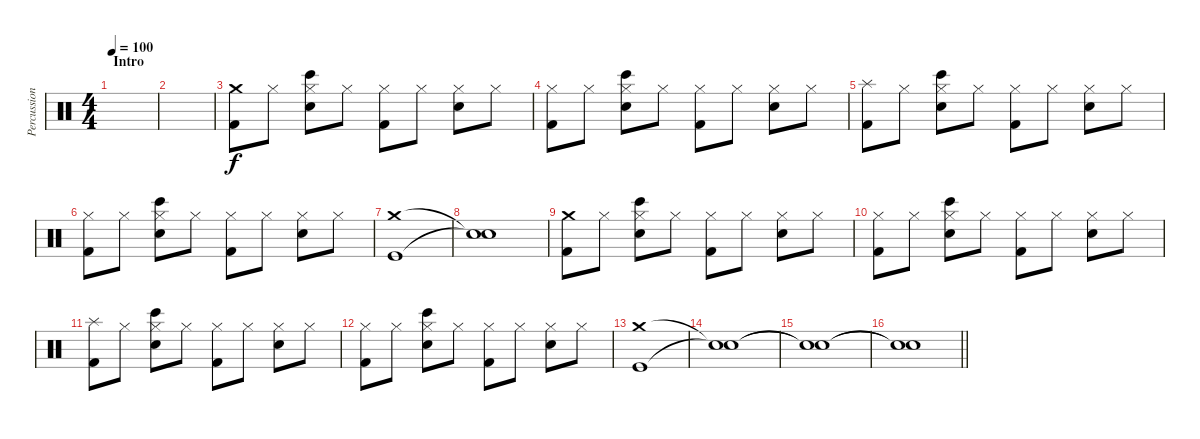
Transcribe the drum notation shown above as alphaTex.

\track ("Percussion" "Percussion") {instrument percussion}
\staff {score}
\articulation defaults
\ts (4 4)
\section ("" "Intro")
\tempo 100
\clef neutral
\ks c
|
|
("Crash medium (hit)" "Kick (hit) 2").8 "Hi-Hat (closed)".8 ("Hi-Hat (closed)" "Snare (hit) 2" "Bongo High (hit)").8 "Hi-Hat (closed)".8 ("Hi-Hat (closed)" "Kick (hit) 2").8 "Hi-Hat (closed)".8 ("Hi-Hat (closed)" "Snare (hit) 2").8 "Hi-Hat (closed)".8 |
("Hi-Hat (closed)" "Kick (hit) 2").8 "Hi-Hat (closed)".8 ("Hi-Hat (closed)" "Snare (hit) 2" "Bongo High (hit)").8 "Hi-Hat (closed)".8 ("Hi-Hat (closed)" "Kick (hit) 2").8 "Hi-Hat (closed)".8 ("Hi-Hat (closed)" "Snare (hit) 2").8 "Hi-Hat (closed)".8 |
("Splash (hit)" "Kick (hit) 2").8 "Hi-Hat (closed)".8 ("Hi-Hat (closed)" "Snare (hit) 2" "Bongo High (hit)").8 "Hi-Hat (closed)".8 ("Hi-Hat (closed)" "Kick (hit) 2").8 "Hi-Hat (closed)".8 ("Hi-Hat (closed)" "Snare (hit) 2").8 "Hi-Hat (closed)".8 |
("Hi-Hat (closed)" "Kick (hit) 2").8 "Hi-Hat (closed)".8 ("Hi-Hat (closed)" "Snare (hit) 2" "Bongo High (hit)").8 "Hi-Hat (closed)".8 ("Hi-Hat (closed)" "Kick (hit) 2").8 "Hi-Hat (closed)".8 ("Hi-Hat (closed)" "Snare (hit) 2").8 "Hi-Hat (closed)".8 |
("Crash medium (hit)" "Kick (hit)").1 |
("Snare (hit)"{t} "Snare (hit)"{t}).1 |
("Crash medium (hit)" "Kick (hit) 2").8 "Hi-Hat (closed)".8 ("Hi-Hat (closed)" "Snare (hit) 2" "Bongo High (hit)").8 "Hi-Hat (closed)".8 ("Hi-Hat (closed)" "Kick (hit) 2").8 "Hi-Hat (closed)".8 ("Hi-Hat (closed)" "Snare (hit) 2").8 "Hi-Hat (closed)".8 |
("Hi-Hat (closed)" "Kick (hit) 2").8 "Hi-Hat (closed)".8 ("Hi-Hat (closed)" "Snare (hit) 2" "Bongo High (hit)").8 "Hi-Hat (closed)".8 ("Hi-Hat (closed)" "Kick (hit) 2").8 "Hi-Hat (closed)".8 ("Hi-Hat (closed)" "Snare (hit) 2").8 "Hi-Hat (closed)".8 |
("Splash (hit)" "Kick (hit) 2").8 "Hi-Hat (closed)".8 ("Hi-Hat (closed)" "Snare (hit) 2" "Bongo High (hit)").8 "Hi-Hat (closed)".8 ("Hi-Hat (closed)" "Kick (hit) 2").8 "Hi-Hat (closed)".8 ("Hi-Hat (closed)" "Snare (hit) 2").8 "Hi-Hat (closed)".8 |
("Hi-Hat (closed)" "Kick (hit) 2").8 "Hi-Hat (closed)".8 ("Hi-Hat (closed)" "Snare (hit) 2" "Bongo High (hit)").8 "Hi-Hat (closed)".8 ("Hi-Hat (closed)" "Kick (hit) 2").8 "Hi-Hat (closed)".8 ("Hi-Hat (closed)" "Snare (hit) 2").8 "Hi-Hat (closed)".8 |
("Crash medium (hit)" "Kick (hit)").1{volume 0} |
("Snare (hit)"{t} "Snare (hit)"{t}).1 |
("Snare (hit)"{t} "Snare (hit)"{t}).1 |
\barLineRight lightlight
("Snare (hit)"{t} "Snare (hit)"{t}).1
